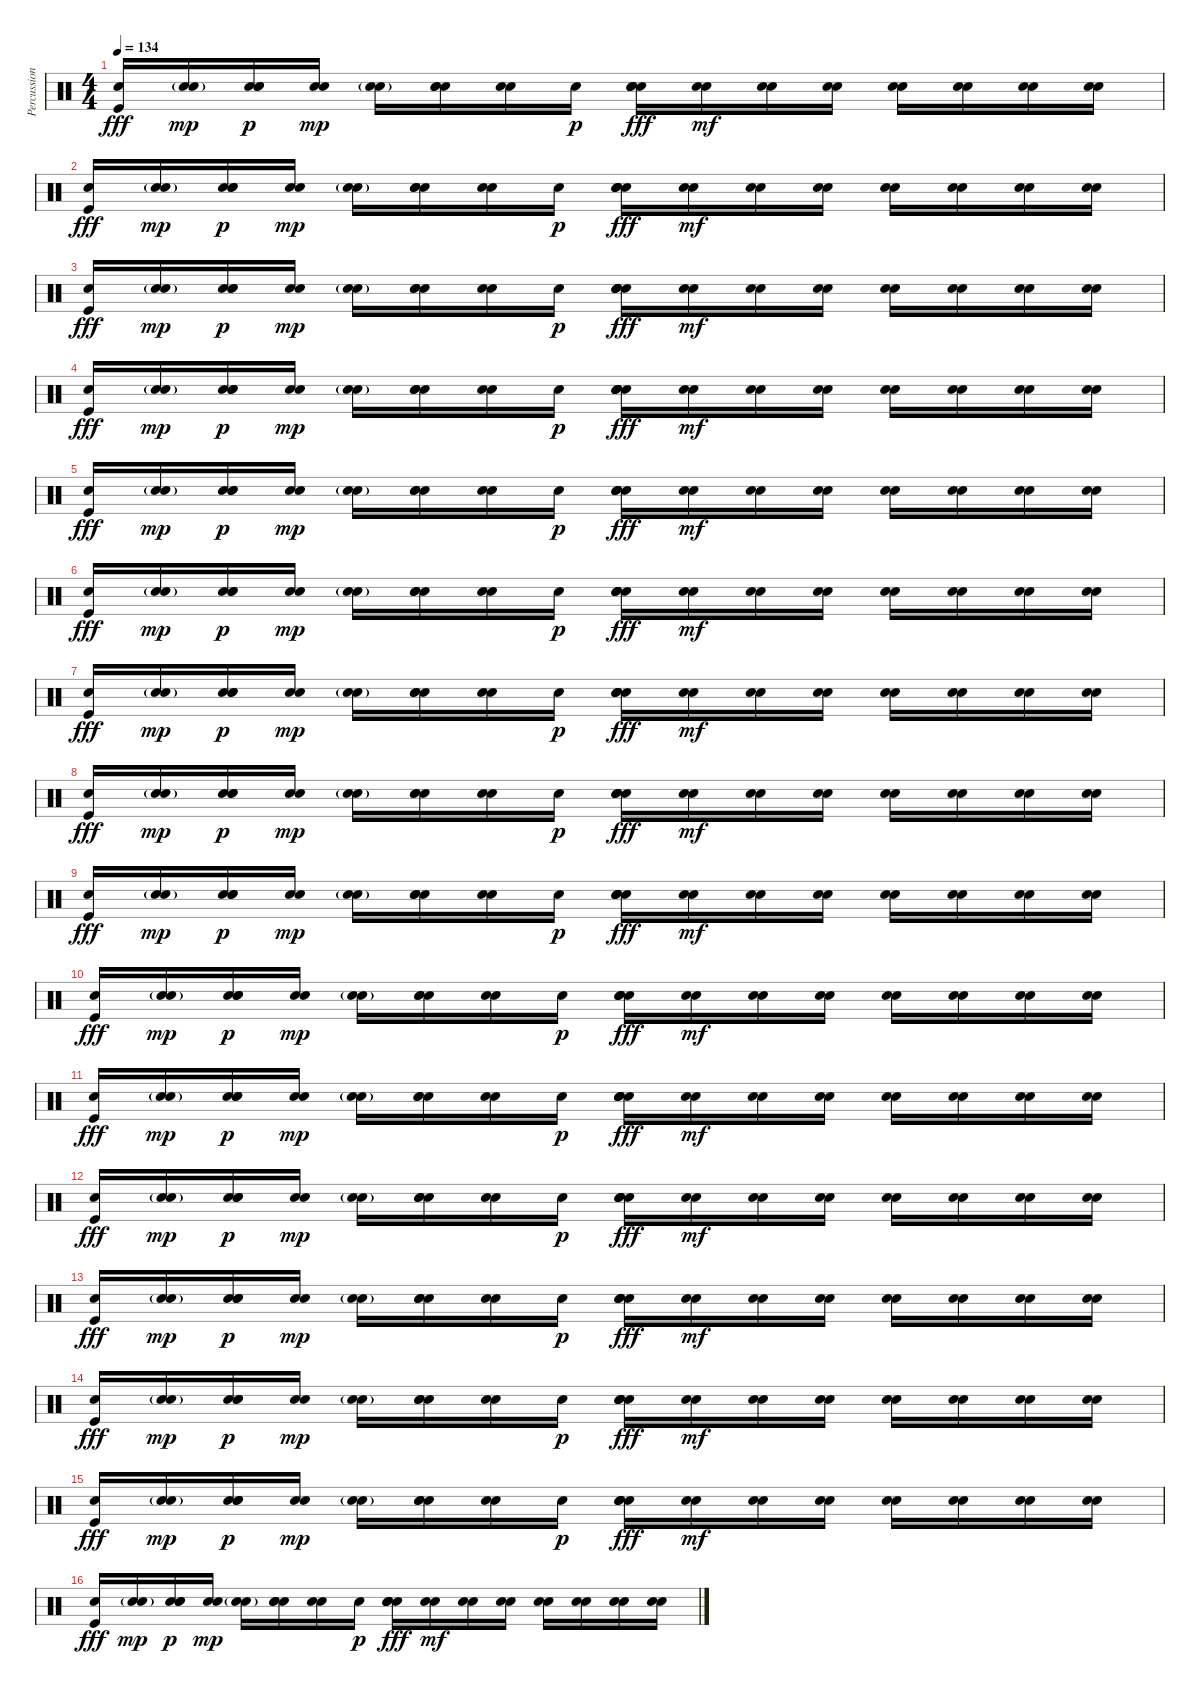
\track ("Percussion" "Percussion") {instrument percussion}
\staff {score}
\articulation defaults
\ts (4 4)
\tempo 134
\clef neutral
\ks c
("Electric Snare (hit)" "Kick (hit)").16{dy fff} ("Electric Snare (hit)" "Electric Snare (hit)"{g}).16{dy mp} ("Electric Snare (hit)" "Electric Snare (hit)" "Snare (hit) 2").16{dy p} ("Electric Snare (hit)" "Snare (hit) 2").16{dy mp} ("Electric Snare (hit)" "Electric Snare (hit)"{g}).16 ("Electric Snare (hit)" "Electric Snare (hit)" "Snare (hit) 2").16 ("Electric Snare (hit)" "Snare (hit) 2").16 "Electric Snare (hit)".16{dy p} ("Electric Snare (hit)" "Snare (hit) 2" "Snare (hit) 2" "Snare (hit) 2").16{dy fff} ("Electric Snare (hit)" "Snare (hit) 2").16{dy mf} ("Electric Snare (hit)" "Snare (hit) 2").16 ("Electric Snare (hit)" "Snare (hit) 2").16 ("Electric Snare (hit)" "Snare (hit) 2").16 ("Electric Snare (hit)" "Snare (hit) 2").16 ("Electric Snare (hit)" "Snare (hit) 2").16 ("Electric Snare (hit)" "Snare (hit) 2").16 |
("Electric Snare (hit)" "Kick (hit)").16{dy fff} ("Electric Snare (hit)" "Electric Snare (hit)"{g}).16{dy mp} ("Electric Snare (hit)" "Electric Snare (hit)" "Snare (hit) 2").16{dy p} ("Electric Snare (hit)" "Snare (hit) 2").16{dy mp} ("Electric Snare (hit)" "Electric Snare (hit)"{g}).16 ("Electric Snare (hit)" "Electric Snare (hit)" "Snare (hit) 2").16 ("Electric Snare (hit)" "Snare (hit) 2").16 "Electric Snare (hit)".16{dy p} ("Electric Snare (hit)" "Snare (hit) 2" "Snare (hit) 2" "Snare (hit) 2").16{dy fff} ("Electric Snare (hit)" "Snare (hit) 2").16{dy mf} ("Electric Snare (hit)" "Snare (hit) 2").16 ("Electric Snare (hit)" "Snare (hit) 2").16 ("Electric Snare (hit)" "Snare (hit) 2").16 ("Electric Snare (hit)" "Snare (hit) 2").16 ("Electric Snare (hit)" "Snare (hit) 2").16 ("Electric Snare (hit)" "Snare (hit) 2").16 |
("Electric Snare (hit)" "Kick (hit)").16{dy fff} ("Electric Snare (hit)" "Electric Snare (hit)"{g}).16{dy mp} ("Electric Snare (hit)" "Electric Snare (hit)" "Snare (hit) 2").16{dy p} ("Electric Snare (hit)" "Snare (hit) 2").16{dy mp} ("Electric Snare (hit)" "Electric Snare (hit)"{g}).16 ("Electric Snare (hit)" "Electric Snare (hit)" "Snare (hit) 2").16 ("Electric Snare (hit)" "Snare (hit) 2").16 "Electric Snare (hit)".16{dy p} ("Electric Snare (hit)" "Snare (hit) 2" "Snare (hit) 2" "Snare (hit) 2").16{dy fff} ("Electric Snare (hit)" "Snare (hit) 2").16{dy mf} ("Electric Snare (hit)" "Snare (hit) 2").16 ("Electric Snare (hit)" "Snare (hit) 2").16 ("Electric Snare (hit)" "Snare (hit) 2").16 ("Electric Snare (hit)" "Snare (hit) 2").16 ("Electric Snare (hit)" "Snare (hit) 2").16 ("Electric Snare (hit)" "Snare (hit) 2").16 |
("Electric Snare (hit)" "Kick (hit)").16{dy fff} ("Electric Snare (hit)" "Electric Snare (hit)"{g}).16{dy mp} ("Electric Snare (hit)" "Electric Snare (hit)" "Snare (hit) 2").16{dy p} ("Electric Snare (hit)" "Snare (hit) 2").16{dy mp} ("Electric Snare (hit)" "Electric Snare (hit)"{g}).16 ("Electric Snare (hit)" "Electric Snare (hit)" "Snare (hit) 2").16 ("Electric Snare (hit)" "Snare (hit) 2").16 "Electric Snare (hit)".16{dy p} ("Electric Snare (hit)" "Snare (hit) 2" "Snare (hit) 2" "Snare (hit) 2").16{dy fff} ("Electric Snare (hit)" "Snare (hit) 2").16{dy mf} ("Electric Snare (hit)" "Snare (hit) 2").16 ("Electric Snare (hit)" "Snare (hit) 2").16 ("Electric Snare (hit)" "Snare (hit) 2").16 ("Electric Snare (hit)" "Snare (hit) 2").16 ("Electric Snare (hit)" "Snare (hit) 2").16 ("Electric Snare (hit)" "Snare (hit) 2").16 |
("Electric Snare (hit)" "Kick (hit)").16{dy fff} ("Electric Snare (hit)" "Electric Snare (hit)"{g}).16{dy mp} ("Electric Snare (hit)" "Electric Snare (hit)" "Snare (hit) 2").16{dy p} ("Electric Snare (hit)" "Snare (hit) 2").16{dy mp} ("Electric Snare (hit)" "Electric Snare (hit)"{g}).16 ("Electric Snare (hit)" "Electric Snare (hit)" "Snare (hit) 2").16 ("Electric Snare (hit)" "Snare (hit) 2").16 "Electric Snare (hit)".16{dy p} ("Electric Snare (hit)" "Snare (hit) 2" "Snare (hit) 2" "Snare (hit) 2").16{dy fff} ("Electric Snare (hit)" "Snare (hit) 2").16{dy mf} ("Electric Snare (hit)" "Snare (hit) 2").16 ("Electric Snare (hit)" "Snare (hit) 2").16 ("Electric Snare (hit)" "Snare (hit) 2").16 ("Electric Snare (hit)" "Snare (hit) 2").16 ("Electric Snare (hit)" "Snare (hit) 2").16 ("Electric Snare (hit)" "Snare (hit) 2").16 |
("Electric Snare (hit)" "Kick (hit)").16{dy fff} ("Electric Snare (hit)" "Electric Snare (hit)"{g}).16{dy mp} ("Electric Snare (hit)" "Electric Snare (hit)" "Snare (hit) 2").16{dy p} ("Electric Snare (hit)" "Snare (hit) 2").16{dy mp} ("Electric Snare (hit)" "Electric Snare (hit)"{g}).16 ("Electric Snare (hit)" "Electric Snare (hit)" "Snare (hit) 2").16 ("Electric Snare (hit)" "Snare (hit) 2").16 "Electric Snare (hit)".16{dy p} ("Electric Snare (hit)" "Snare (hit) 2" "Snare (hit) 2" "Snare (hit) 2").16{dy fff} ("Electric Snare (hit)" "Snare (hit) 2").16{dy mf} ("Electric Snare (hit)" "Snare (hit) 2").16 ("Electric Snare (hit)" "Snare (hit) 2").16 ("Electric Snare (hit)" "Snare (hit) 2").16 ("Electric Snare (hit)" "Snare (hit) 2").16 ("Electric Snare (hit)" "Snare (hit) 2").16 ("Electric Snare (hit)" "Snare (hit) 2").16 |
("Electric Snare (hit)" "Kick (hit)").16{dy fff} ("Electric Snare (hit)" "Electric Snare (hit)"{g}).16{dy mp} ("Electric Snare (hit)" "Electric Snare (hit)" "Snare (hit) 2").16{dy p} ("Electric Snare (hit)" "Snare (hit) 2").16{dy mp} ("Electric Snare (hit)" "Electric Snare (hit)"{g}).16 ("Electric Snare (hit)" "Electric Snare (hit)" "Snare (hit) 2").16 ("Electric Snare (hit)" "Snare (hit) 2").16 "Electric Snare (hit)".16{dy p} ("Electric Snare (hit)" "Snare (hit) 2" "Snare (hit) 2" "Snare (hit) 2").16{dy fff} ("Electric Snare (hit)" "Snare (hit) 2").16{dy mf} ("Electric Snare (hit)" "Snare (hit) 2").16 ("Electric Snare (hit)" "Snare (hit) 2").16 ("Electric Snare (hit)" "Snare (hit) 2").16 ("Electric Snare (hit)" "Snare (hit) 2").16 ("Electric Snare (hit)" "Snare (hit) 2").16 ("Electric Snare (hit)" "Snare (hit) 2").16 |
("Electric Snare (hit)" "Kick (hit)").16{dy fff} ("Electric Snare (hit)" "Electric Snare (hit)"{g}).16{dy mp} ("Electric Snare (hit)" "Electric Snare (hit)" "Snare (hit) 2").16{dy p} ("Electric Snare (hit)" "Snare (hit) 2").16{dy mp} ("Electric Snare (hit)" "Electric Snare (hit)"{g}).16 ("Electric Snare (hit)" "Electric Snare (hit)" "Snare (hit) 2").16 ("Electric Snare (hit)" "Snare (hit) 2").16 "Electric Snare (hit)".16{dy p} ("Electric Snare (hit)" "Snare (hit) 2" "Snare (hit) 2" "Snare (hit) 2").16{dy fff} ("Electric Snare (hit)" "Snare (hit) 2").16{dy mf} ("Electric Snare (hit)" "Snare (hit) 2").16 ("Electric Snare (hit)" "Snare (hit) 2").16 ("Electric Snare (hit)" "Snare (hit) 2").16 ("Electric Snare (hit)" "Snare (hit) 2").16 ("Electric Snare (hit)" "Snare (hit) 2").16 ("Electric Snare (hit)" "Snare (hit) 2").16 |
("Electric Snare (hit)" "Kick (hit)").16{dy fff} ("Electric Snare (hit)" "Electric Snare (hit)"{g}).16{dy mp} ("Electric Snare (hit)" "Electric Snare (hit)" "Snare (hit) 2").16{dy p} ("Electric Snare (hit)" "Snare (hit) 2").16{dy mp} ("Electric Snare (hit)" "Electric Snare (hit)"{g}).16 ("Electric Snare (hit)" "Electric Snare (hit)" "Snare (hit) 2").16 ("Electric Snare (hit)" "Snare (hit) 2").16 "Electric Snare (hit)".16{dy p} ("Electric Snare (hit)" "Snare (hit) 2" "Snare (hit) 2" "Snare (hit) 2").16{dy fff} ("Electric Snare (hit)" "Snare (hit) 2").16{dy mf} ("Electric Snare (hit)" "Snare (hit) 2").16 ("Electric Snare (hit)" "Snare (hit) 2").16 ("Electric Snare (hit)" "Snare (hit) 2").16 ("Electric Snare (hit)" "Snare (hit) 2").16 ("Electric Snare (hit)" "Snare (hit) 2").16 ("Electric Snare (hit)" "Snare (hit) 2").16 |
("Electric Snare (hit)" "Kick (hit)").16{dy fff} ("Electric Snare (hit)" "Electric Snare (hit)"{g}).16{dy mp} ("Electric Snare (hit)" "Electric Snare (hit)" "Snare (hit) 2").16{dy p} ("Electric Snare (hit)" "Snare (hit) 2").16{dy mp} ("Electric Snare (hit)" "Electric Snare (hit)"{g}).16 ("Electric Snare (hit)" "Electric Snare (hit)" "Snare (hit) 2").16 ("Electric Snare (hit)" "Snare (hit) 2").16 "Electric Snare (hit)".16{dy p} ("Electric Snare (hit)" "Snare (hit) 2" "Snare (hit) 2" "Snare (hit) 2").16{dy fff} ("Electric Snare (hit)" "Snare (hit) 2").16{dy mf} ("Electric Snare (hit)" "Snare (hit) 2").16 ("Electric Snare (hit)" "Snare (hit) 2").16 ("Electric Snare (hit)" "Snare (hit) 2").16 ("Electric Snare (hit)" "Snare (hit) 2").16 ("Electric Snare (hit)" "Snare (hit) 2").16 ("Electric Snare (hit)" "Snare (hit) 2").16 |
("Electric Snare (hit)" "Kick (hit)").16{dy fff} ("Electric Snare (hit)" "Electric Snare (hit)"{g}).16{dy mp} ("Electric Snare (hit)" "Electric Snare (hit)" "Snare (hit) 2").16{dy p} ("Electric Snare (hit)" "Snare (hit) 2").16{dy mp} ("Electric Snare (hit)" "Electric Snare (hit)"{g}).16 ("Electric Snare (hit)" "Electric Snare (hit)" "Snare (hit) 2").16 ("Electric Snare (hit)" "Snare (hit) 2").16 "Electric Snare (hit)".16{dy p} ("Electric Snare (hit)" "Snare (hit) 2" "Snare (hit) 2" "Snare (hit) 2").16{dy fff} ("Electric Snare (hit)" "Snare (hit) 2").16{dy mf} ("Electric Snare (hit)" "Snare (hit) 2").16 ("Electric Snare (hit)" "Snare (hit) 2").16 ("Electric Snare (hit)" "Snare (hit) 2").16 ("Electric Snare (hit)" "Snare (hit) 2").16 ("Electric Snare (hit)" "Snare (hit) 2").16 ("Electric Snare (hit)" "Snare (hit) 2").16 |
("Electric Snare (hit)" "Kick (hit)").16{dy fff} ("Electric Snare (hit)" "Electric Snare (hit)"{g}).16{dy mp} ("Electric Snare (hit)" "Electric Snare (hit)" "Snare (hit) 2").16{dy p} ("Electric Snare (hit)" "Snare (hit) 2").16{dy mp} ("Electric Snare (hit)" "Electric Snare (hit)"{g}).16 ("Electric Snare (hit)" "Electric Snare (hit)" "Snare (hit) 2").16 ("Electric Snare (hit)" "Snare (hit) 2").16 "Electric Snare (hit)".16{dy p} ("Electric Snare (hit)" "Snare (hit) 2" "Snare (hit) 2" "Snare (hit) 2").16{dy fff} ("Electric Snare (hit)" "Snare (hit) 2").16{dy mf} ("Electric Snare (hit)" "Snare (hit) 2").16 ("Electric Snare (hit)" "Snare (hit) 2").16 ("Electric Snare (hit)" "Snare (hit) 2").16 ("Electric Snare (hit)" "Snare (hit) 2").16 ("Electric Snare (hit)" "Snare (hit) 2").16 ("Electric Snare (hit)" "Snare (hit) 2").16 |
("Electric Snare (hit)" "Kick (hit)").16{dy fff} ("Electric Snare (hit)" "Electric Snare (hit)"{g}).16{dy mp} ("Electric Snare (hit)" "Electric Snare (hit)" "Snare (hit) 2").16{dy p} ("Electric Snare (hit)" "Snare (hit) 2").16{dy mp} ("Electric Snare (hit)" "Electric Snare (hit)"{g}).16 ("Electric Snare (hit)" "Electric Snare (hit)" "Snare (hit) 2").16 ("Electric Snare (hit)" "Snare (hit) 2").16 "Electric Snare (hit)".16{dy p} ("Electric Snare (hit)" "Snare (hit) 2" "Snare (hit) 2" "Snare (hit) 2").16{dy fff} ("Electric Snare (hit)" "Snare (hit) 2").16{dy mf} ("Electric Snare (hit)" "Snare (hit) 2").16 ("Electric Snare (hit)" "Snare (hit) 2").16 ("Electric Snare (hit)" "Snare (hit) 2").16 ("Electric Snare (hit)" "Snare (hit) 2").16 ("Electric Snare (hit)" "Snare (hit) 2").16 ("Electric Snare (hit)" "Snare (hit) 2").16 |
("Electric Snare (hit)" "Kick (hit)").16{dy fff} ("Electric Snare (hit)" "Electric Snare (hit)"{g}).16{dy mp} ("Electric Snare (hit)" "Electric Snare (hit)" "Snare (hit) 2").16{dy p} ("Electric Snare (hit)" "Snare (hit) 2").16{dy mp} ("Electric Snare (hit)" "Electric Snare (hit)"{g}).16 ("Electric Snare (hit)" "Electric Snare (hit)" "Snare (hit) 2").16 ("Electric Snare (hit)" "Snare (hit) 2").16 "Electric Snare (hit)".16{dy p} ("Electric Snare (hit)" "Snare (hit) 2" "Snare (hit) 2" "Snare (hit) 2").16{dy fff} ("Electric Snare (hit)" "Snare (hit) 2").16{dy mf} ("Electric Snare (hit)" "Snare (hit) 2").16 ("Electric Snare (hit)" "Snare (hit) 2").16 ("Electric Snare (hit)" "Snare (hit) 2").16 ("Electric Snare (hit)" "Snare (hit) 2").16 ("Electric Snare (hit)" "Snare (hit) 2").16 ("Electric Snare (hit)" "Snare (hit) 2").16 |
("Electric Snare (hit)" "Kick (hit)").16{dy fff} ("Electric Snare (hit)" "Electric Snare (hit)"{g}).16{dy mp} ("Electric Snare (hit)" "Electric Snare (hit)" "Snare (hit) 2").16{dy p} ("Electric Snare (hit)" "Snare (hit) 2").16{dy mp} ("Electric Snare (hit)" "Electric Snare (hit)"{g}).16 ("Electric Snare (hit)" "Electric Snare (hit)" "Snare (hit) 2").16 ("Electric Snare (hit)" "Snare (hit) 2").16 "Electric Snare (hit)".16{dy p} ("Electric Snare (hit)" "Snare (hit) 2" "Snare (hit) 2" "Snare (hit) 2").16{dy fff} ("Electric Snare (hit)" "Snare (hit) 2").16{dy mf} ("Electric Snare (hit)" "Snare (hit) 2").16 ("Electric Snare (hit)" "Snare (hit) 2").16 ("Electric Snare (hit)" "Snare (hit) 2").16 ("Electric Snare (hit)" "Snare (hit) 2").16 ("Electric Snare (hit)" "Snare (hit) 2").16 ("Electric Snare (hit)" "Snare (hit) 2").16 |
("Electric Snare (hit)" "Kick (hit)").16{dy fff} ("Electric Snare (hit)" "Electric Snare (hit)"{g}).16{dy mp} ("Electric Snare (hit)" "Electric Snare (hit)" "Snare (hit) 2").16{dy p} ("Electric Snare (hit)" "Snare (hit) 2").16{dy mp} ("Electric Snare (hit)" "Electric Snare (hit)"{g}).16 ("Electric Snare (hit)" "Electric Snare (hit)" "Snare (hit) 2").16 ("Electric Snare (hit)" "Snare (hit) 2").16 "Electric Snare (hit)".16{dy p} ("Electric Snare (hit)" "Snare (hit) 2" "Snare (hit) 2" "Snare (hit) 2").16{dy fff} ("Electric Snare (hit)" "Snare (hit) 2").16{dy mf} ("Electric Snare (hit)" "Snare (hit) 2").16 ("Electric Snare (hit)" "Snare (hit) 2").16 ("Electric Snare (hit)" "Snare (hit) 2").16 ("Electric Snare (hit)" "Snare (hit) 2").16 ("Electric Snare (hit)" "Snare (hit) 2").16 ("Electric Snare (hit)" "Snare (hit) 2").16
